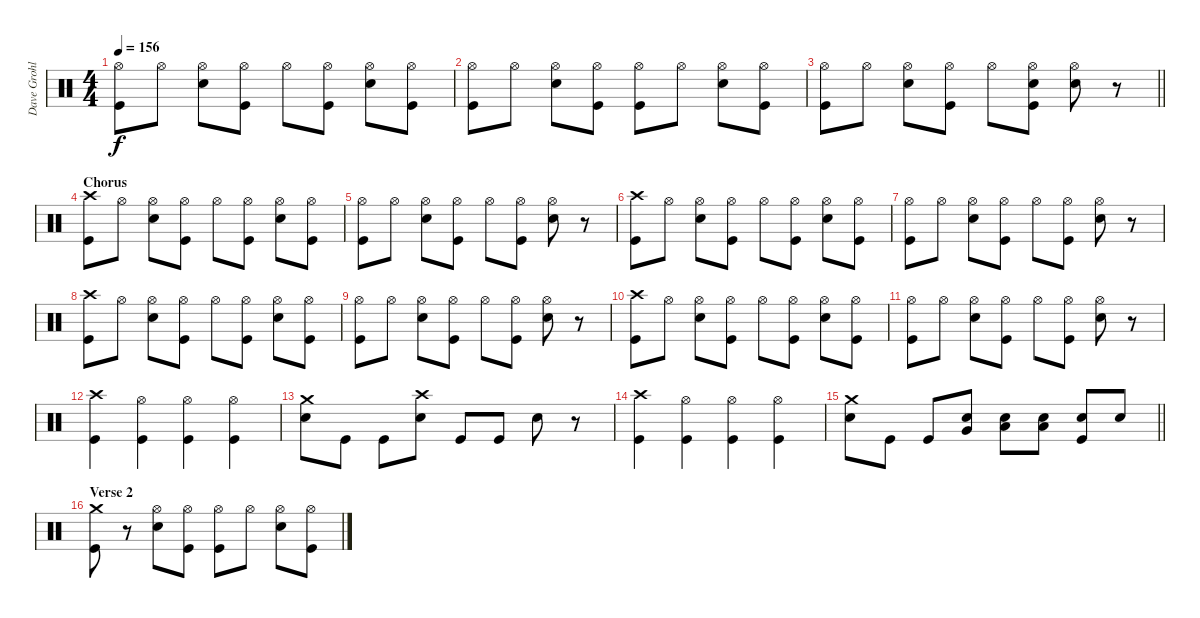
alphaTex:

\track ("Dave Grohl - Drums" "Dave Grohl") {instrument percussion}
\staff {score}
\articulation defaults
\ts (4 4)
\tempo 156
\clef neutral
\ks c
("Hi-Hat (open)" "Kick (hit)").8{dy f} "Hi-Hat (open)".8 ("Hi-Hat (open)" "Snare (hit) 2").8 ("Hi-Hat (open)" "Kick (hit)").8 "Hi-Hat (open)".8 ("Hi-Hat (open)" "Kick (hit)").8 ("Hi-Hat (open)" "Snare (hit) 2").8 ("Hi-Hat (open)" "Kick (hit)").8 |
("Hi-Hat (open)" "Kick (hit)").8 "Hi-Hat (open)".8 ("Hi-Hat (open)" "Snare (hit) 2").8 ("Hi-Hat (open)" "Kick (hit)").8 ("Hi-Hat (open)" "Kick (hit)").8 "Hi-Hat (open)".8 ("Hi-Hat (open)" "Snare (hit) 2").8 ("Hi-Hat (open)" "Kick (hit)").8 |
\barLineRight lightlight
("Hi-Hat (open)" "Kick (hit)").8 "Hi-Hat (open)".8 ("Hi-Hat (open)" "Snare (hit) 2").8 ("Hi-Hat (open)" "Kick (hit)").8 "Hi-Hat (open)".8 ("Hi-Hat (open)" "Snare (hit) 2" "Kick (hit)").8 ("Hi-Hat (open)" "Snare (hit) 2").8 r.8 |
\section ("" "Chorus")
("Crash high (hit)" "Kick (hit)").8 "Hi-Hat (open)".8 ("Hi-Hat (open)" "Snare (hit) 2").8 ("Hi-Hat (open)" "Kick (hit)").8 "Hi-Hat (open)".8 ("Hi-Hat (open)" "Kick (hit)").8 ("Hi-Hat (open)" "Snare (hit) 2").8 ("Hi-Hat (open)" "Kick (hit)").8 |
("Hi-Hat (open)" "Kick (hit)").8 "Hi-Hat (open)".8 ("Hi-Hat (open)" "Snare (hit) 2").8 ("Hi-Hat (open)" "Kick (hit)").8 "Hi-Hat (open)".8 ("Hi-Hat (open)" "Kick (hit)").8 ("Hi-Hat (open)" "Snare (hit) 2").8 r.8 |
("Crash high (hit)" "Kick (hit)").8 "Hi-Hat (open)".8 ("Hi-Hat (open)" "Snare (hit) 2").8 ("Hi-Hat (open)" "Kick (hit)").8 "Hi-Hat (open)".8 ("Hi-Hat (open)" "Kick (hit)").8 ("Hi-Hat (open)" "Snare (hit) 2").8 ("Hi-Hat (open)" "Kick (hit)").8 |
("Hi-Hat (open)" "Kick (hit)").8 "Hi-Hat (open)".8 ("Hi-Hat (open)" "Snare (hit) 2").8 ("Hi-Hat (open)" "Kick (hit)").8 "Hi-Hat (open)".8 ("Hi-Hat (open)" "Kick (hit)").8 ("Hi-Hat (open)" "Snare (hit) 2").8 r.8 |
("Crash high (hit)" "Kick (hit)").8 "Hi-Hat (open)".8 ("Hi-Hat (open)" "Snare (hit) 2").8 ("Hi-Hat (open)" "Kick (hit)").8 "Hi-Hat (open)".8 ("Hi-Hat (open)" "Kick (hit)").8 ("Hi-Hat (open)" "Snare (hit) 2").8 ("Hi-Hat (open)" "Kick (hit)").8 |
("Hi-Hat (open)" "Kick (hit)").8 "Hi-Hat (open)".8 ("Hi-Hat (open)" "Snare (hit) 2").8 ("Hi-Hat (open)" "Kick (hit)").8 "Hi-Hat (open)".8 ("Hi-Hat (open)" "Kick (hit)").8 ("Hi-Hat (open)" "Snare (hit) 2").8 r.8 |
("Crash high (hit)" "Kick (hit)").8 "Hi-Hat (open)".8 ("Hi-Hat (open)" "Snare (hit) 2").8 ("Hi-Hat (open)" "Kick (hit)").8 "Hi-Hat (open)".8 ("Hi-Hat (open)" "Kick (hit)").8 ("Hi-Hat (open)" "Snare (hit) 2").8 ("Hi-Hat (open)" "Kick (hit)").8 |
("Hi-Hat (open)" "Kick (hit)").8 "Hi-Hat (open)".8 ("Hi-Hat (open)" "Snare (hit) 2").8 ("Hi-Hat (open)" "Kick (hit)").8 "Hi-Hat (open)".8 ("Hi-Hat (open)" "Kick (hit)").8 ("Hi-Hat (open)" "Snare (hit) 2").8 r.8 |
("Crash high (hit)" "Kick (hit)").4 ("Hi-Hat (open)" "Kick (hit)").4 ("Hi-Hat (open)" "Kick (hit)").4 ("Hi-Hat (open)" "Kick (hit)").4 |
("Crash medium (hit)" "Snare (hit) 2").8 "Kick (hit)".8 "Kick (hit)".8 ("Crash high (hit)" "Snare (hit) 2").8 "Kick (hit)".8 "Kick (hit)".8 "Snare (hit) 2".8 r.8 |
("Crash high (hit)" "Kick (hit)").4 ("Hi-Hat (open)" "Kick (hit)").4 ("Hi-Hat (open)" "Kick (hit)").4 ("Hi-Hat (open)" "Kick (hit)").4 |
\barLineRight lightlight
("Crash medium (hit)" "Snare (hit) 2").8 "Kick (hit)".8 "Kick (hit)".8 ("Snare (hit) 2" "Very Low Tom (hit)").8 ("Snare (hit) 2" "Low Tom (hit)").8 ("Snare (hit) 2" "Low Tom (hit)").8 ("Snare (hit) 2" "Kick (hit)").8 "Snare (hit) 2".8 |
\section ("" "Verse 2")
("Crash medium (hit)" "Kick (hit)").8 r.8 ("Hi-Hat (open)" "Snare (hit) 2").8 ("Hi-Hat (open)" "Kick (hit)").8 ("Hi-Hat (open)" "Kick (hit)").8 "Hi-Hat (open)".8 ("Hi-Hat (open)" "Snare (hit) 2").8 ("Hi-Hat (open)" "Kick (hit)").8
